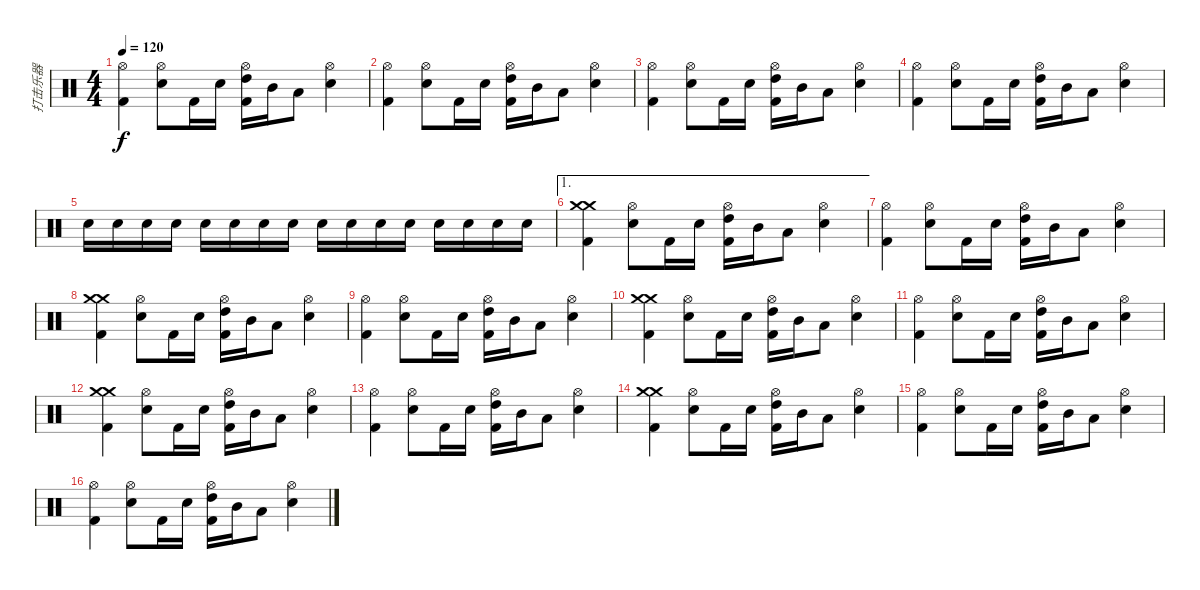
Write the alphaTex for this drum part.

\track ("打击乐器" "打击乐器") {instrument percussion}
\staff {score}
\articulation defaults
\ts (4 4)
\tempo 120
\clef neutral
\ks c
("Hi-Hat (open)" "Kick (hit) 2").4{dy f} ("Hi-Hat (open)" "Snare (hit) 2").8 "Kick (hit) 2".16 "Snare (hit) 2".16 ("Hi-Hat (open)" "High Tom (hit)" "Kick (hit) 2").16 "Mid Tom (hit)".16 "Low Tom (hit)".8 ("Hi-Hat (open)" "Snare (hit) 2").4 |
("Hi-Hat (open)" "Kick (hit) 2").4 ("Hi-Hat (open)" "Snare (hit) 2").8 "Kick (hit) 2".16 "Snare (hit) 2".16 ("Hi-Hat (open)" "High Tom (hit)" "Kick (hit) 2").16 "Mid Tom (hit)".16 "Low Tom (hit)".8 ("Hi-Hat (open)" "Snare (hit) 2").4 |
("Hi-Hat (open)" "Kick (hit) 2").4 ("Hi-Hat (open)" "Snare (hit) 2").8 "Kick (hit) 2".16 "Snare (hit) 2".16 ("Hi-Hat (open)" "High Tom (hit)" "Kick (hit) 2").16 "Mid Tom (hit)".16 "Low Tom (hit)".8 ("Hi-Hat (open)" "Snare (hit) 2").4 |
("Hi-Hat (open)" "Kick (hit) 2").4 ("Hi-Hat (open)" "Snare (hit) 2").8 "Kick (hit) 2".16 "Snare (hit) 2".16 ("Hi-Hat (open)" "High Tom (hit)" "Kick (hit) 2").16 "Mid Tom (hit)".16 "Low Tom (hit)".8 ("Hi-Hat (open)" "Snare (hit) 2").4 |
"Snare (hit) 2".16 "Snare (hit) 2".16 "Snare (hit) 2".16 "Snare (hit) 2".16 "Snare (hit) 2".16 "Snare (hit) 2".16 "Snare (hit) 2".16 "Snare (hit) 2".16 "Snare (hit) 2".16 "Snare (hit) 2".16 "Snare (hit) 2".16 "Snare (hit) 2".16 "Snare (hit) 2".16 "Snare (hit) 2".16 "Snare (hit) 2".16 "Snare (hit) 2".16 |
\ae 1
("Crash medium (hit)" "Crash medium (hit)" "Kick (hit) 2").4 ("Hi-Hat (open)" "Snare (hit) 2").8 "Kick (hit) 2".16 "Snare (hit) 2".16 ("Hi-Hat (open)" "High Tom (hit)" "Kick (hit) 2").16 "Mid Tom (hit)".16 "Low Tom (hit)".8 ("Hi-Hat (open)" "Snare (hit) 2").4 |
("Hi-Hat (open)" "Kick (hit) 2").4 ("Hi-Hat (open)" "Snare (hit) 2").8 "Kick (hit) 2".16 "Snare (hit) 2".16 ("Hi-Hat (open)" "High Tom (hit)" "Kick (hit) 2").16 "Mid Tom (hit)".16 "Low Tom (hit)".8 ("Hi-Hat (open)" "Snare (hit) 2").4 |
("Crash medium (hit)" "Crash medium (hit)" "Kick (hit) 2").4 ("Hi-Hat (open)" "Snare (hit) 2").8 "Kick (hit) 2".16 "Snare (hit) 2".16 ("Hi-Hat (open)" "High Tom (hit)" "Kick (hit) 2").16 "Mid Tom (hit)".16 "Low Tom (hit)".8 ("Hi-Hat (open)" "Snare (hit) 2").4 |
("Hi-Hat (open)" "Kick (hit) 2").4 ("Hi-Hat (open)" "Snare (hit) 2").8 "Kick (hit) 2".16 "Snare (hit) 2".16 ("Hi-Hat (open)" "High Tom (hit)" "Kick (hit) 2").16 "Mid Tom (hit)".16 "Low Tom (hit)".8 ("Hi-Hat (open)" "Snare (hit) 2").4 |
("Crash medium (hit)" "Crash medium (hit)" "Kick (hit) 2").4 ("Hi-Hat (open)" "Snare (hit) 2").8 "Kick (hit) 2".16 "Snare (hit) 2".16 ("Hi-Hat (open)" "High Tom (hit)" "Kick (hit) 2").16 "Mid Tom (hit)".16 "Low Tom (hit)".8 ("Hi-Hat (open)" "Snare (hit) 2").4 |
("Hi-Hat (open)" "Kick (hit) 2").4 ("Hi-Hat (open)" "Snare (hit) 2").8 "Kick (hit) 2".16 "Snare (hit) 2".16 ("Hi-Hat (open)" "High Tom (hit)" "Kick (hit) 2").16 "Mid Tom (hit)".16 "Low Tom (hit)".8 ("Hi-Hat (open)" "Snare (hit) 2").4 |
("Crash medium (hit)" "Crash medium (hit)" "Kick (hit) 2").4 ("Hi-Hat (open)" "Snare (hit) 2").8 "Kick (hit) 2".16 "Snare (hit) 2".16 ("Hi-Hat (open)" "High Tom (hit)" "Kick (hit) 2").16 "Mid Tom (hit)".16 "Low Tom (hit)".8 ("Hi-Hat (open)" "Snare (hit) 2").4 |
("Hi-Hat (open)" "Kick (hit) 2").4 ("Hi-Hat (open)" "Snare (hit) 2").8 "Kick (hit) 2".16 "Snare (hit) 2".16 ("Hi-Hat (open)" "High Tom (hit)" "Kick (hit) 2").16 "Mid Tom (hit)".16 "Low Tom (hit)".8 ("Hi-Hat (open)" "Snare (hit) 2").4 |
("Crash medium (hit)" "Crash medium (hit)" "Kick (hit) 2").4 ("Hi-Hat (open)" "Snare (hit) 2").8 "Kick (hit) 2".16 "Snare (hit) 2".16 ("Hi-Hat (open)" "High Tom (hit)" "Kick (hit) 2").16 "Mid Tom (hit)".16 "Low Tom (hit)".8 ("Hi-Hat (open)" "Snare (hit) 2").4 |
("Hi-Hat (open)" "Kick (hit) 2").4 ("Hi-Hat (open)" "Snare (hit) 2").8 "Kick (hit) 2".16 "Snare (hit) 2".16 ("Hi-Hat (open)" "High Tom (hit)" "Kick (hit) 2").16 "Mid Tom (hit)".16 "Low Tom (hit)".8 ("Hi-Hat (open)" "Snare (hit) 2").4 |
("Hi-Hat (open)" "Kick (hit) 2").4 ("Hi-Hat (open)" "Snare (hit) 2").8 "Kick (hit) 2".16 "Snare (hit) 2".16 ("Hi-Hat (open)" "High Tom (hit)" "Kick (hit) 2").16 "Mid Tom (hit)".16 "Low Tom (hit)".8 ("Hi-Hat (open)" "Snare (hit) 2").4
